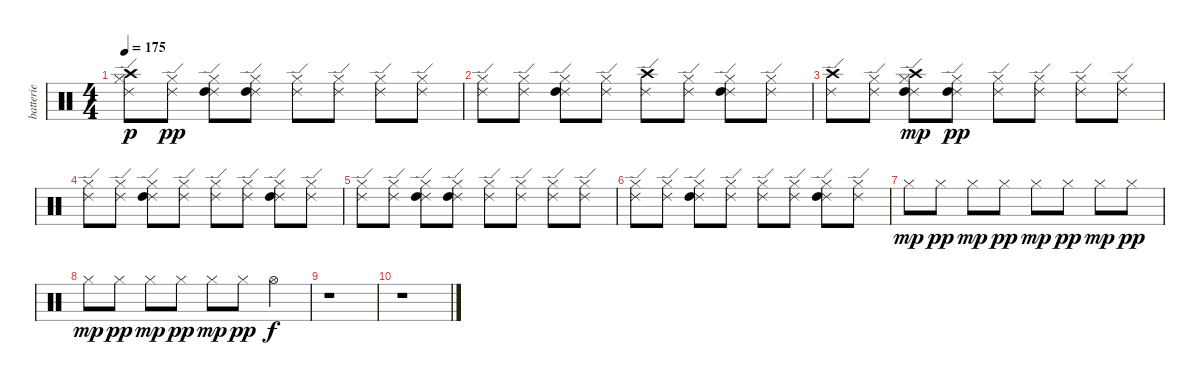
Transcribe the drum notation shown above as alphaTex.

\track ("batterie" "batterie") {instrument percussion}
\staff {score}
\articulation defaults
\ts (4 4)
\tempo 175
\clef neutral
\ks c
("Ride (edge) 2" "Hi-Hat (closed)" "Crash high (hit)").8{dy p} ("Ride (edge) 2" "Hi-Hat (closed)").8{dy pp} ("Ride (edge) 2" "High Tom (hit)" "Hi-Hat (closed)").8 ("Ride (edge) 2" "High Tom (hit)" "Hi-Hat (closed)").8 ("Ride (edge) 2" "Hi-Hat (closed)").8 ("Ride (edge) 2" "Hi-Hat (closed)").8 ("Ride (edge) 2" "Hi-Hat (closed)").8 ("Ride (edge) 2" "Hi-Hat (closed)").8 |
("Ride (edge) 2" "Hi-Hat (closed)").8 ("Ride (edge) 2" "Hi-Hat (closed)").8 ("Ride (edge) 2" "High Tom (hit)" "Hi-Hat (closed)").8 ("Ride (edge) 2" "Hi-Hat (closed)").8 ("Ride (edge) 2" "Crash high (hit)").8 ("Ride (edge) 2" "Hi-Hat (closed)").8 ("Ride (edge) 2" "High Tom (hit)" "Hi-Hat (closed)").8 ("Ride (edge) 2" "Hi-Hat (closed)").8 |
("Ride (edge) 2" "Crash high (hit)").8 ("Ride (edge) 2" "Hi-Hat (closed)").8 ("Ride (edge) 2" "High Tom (hit)" "Hi-Hat (closed)" "Crash high (hit)").8{dy mp} ("Ride (edge) 2" "High Tom (hit)" "Hi-Hat (closed)").8{dy pp} ("Ride (edge) 2" "Hi-Hat (closed)").8 ("Ride (edge) 2" "Hi-Hat (closed)").8 ("Ride (edge) 2" "Hi-Hat (closed)").8 ("Ride (edge) 2" "Hi-Hat (closed)").8 |
("Ride (edge) 2" "Hi-Hat (closed)").8 ("Ride (edge) 2" "Hi-Hat (closed)").8 ("Ride (edge) 2" "High Tom (hit)" "Hi-Hat (closed)").8 ("Ride (edge) 2" "Hi-Hat (closed)").8 ("Ride (edge) 2" "Hi-Hat (closed)").8 ("Ride (edge) 2" "Hi-Hat (closed)").8 ("Ride (edge) 2" "High Tom (hit)" "Hi-Hat (closed)").8 ("Ride (edge) 2" "Hi-Hat (closed)").8 |
("Ride (edge) 2" "Hi-Hat (closed)").8 ("Ride (edge) 2" "Hi-Hat (closed)").8 ("Ride (edge) 2" "High Tom (hit)" "Hi-Hat (closed)").8 ("Ride (edge) 2" "High Tom (hit)" "Hi-Hat (closed)").8 ("Ride (edge) 2" "Hi-Hat (closed)").8 ("Ride (edge) 2" "Hi-Hat (closed)").8 ("Ride (edge) 2" "Hi-Hat (closed)").8 ("Ride (edge) 2" "Hi-Hat (closed)").8 |
("Ride (edge) 2" "Hi-Hat (closed)").8 ("Ride (edge) 2" "Hi-Hat (closed)").8 ("Ride (edge) 2" "High Tom (hit)" "Hi-Hat (closed)").8 ("Ride (edge) 2" "Hi-Hat (closed)").8 ("Ride (edge) 2" "Hi-Hat (closed)").8 ("Ride (edge) 2" "Hi-Hat (closed)").8 ("Ride (edge) 2" "High Tom (hit)" "Hi-Hat (closed)").8 ("Ride (edge) 2" "Hi-Hat (closed)").8 |
"Hi-Hat (closed)".8{dy mp} "Hi-Hat (closed)".8{dy pp} "Hi-Hat (closed)".8{dy mp} "Hi-Hat (closed)".8{dy pp} "Hi-Hat (closed)".8{dy mp} "Hi-Hat (closed)".8{dy pp} "Hi-Hat (closed)".8{dy mp} "Hi-Hat (closed)".8{dy pp} |
"Hi-Hat (closed)".8{dy mp} "Hi-Hat (closed)".8{dy pp} "Hi-Hat (closed)".8{dy mp} "Hi-Hat (closed)".8{dy pp} "Hi-Hat (closed)".8{dy mp} "Hi-Hat (closed)".8{dy pp} "Hi-Hat (open)".4{dy f} |
r.1 |
r.1
